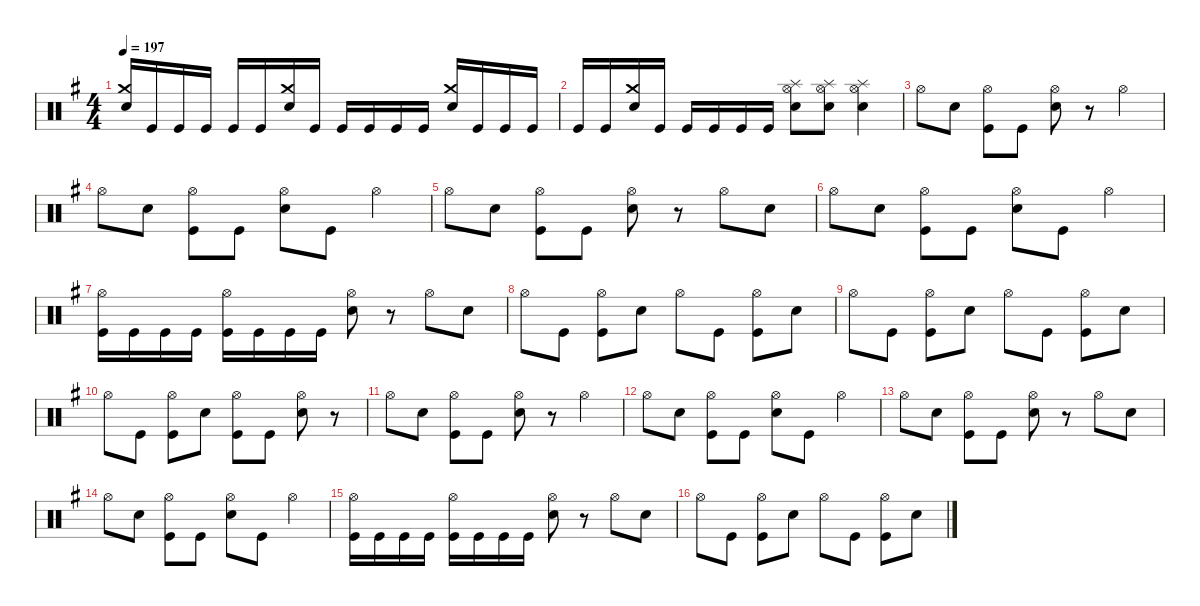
\defaultSystemsLayout 4
\hideDynamics
\bracketExtendMode nobrackets
\singleTrackTrackNamePolicy hidden
\multiTrackTrackNamePolicy hidden
\firstSystemTrackNameMode fullname
\firstSystemTrackNameOrientation horizontal
\otherSystemsTrackNameOrientation horizontal
\track ("Drums" "drm.") {defaultSystemsLayout 4 instrument percussion}
\staff {score}
\articulation defaults
\ts (4 4)
\tempo 197
\clef neutral
\ks eminor
("Crash medium (hit)"{acc forcenatural} "Snare (hit) 2"{acc forcenatural}).16{dy f beam Up} "Kick (hit)"{acc forcenatural}.16{beam Up} "Kick (hit)"{acc forcenatural}.16{beam Up} "Kick (hit)"{acc forcenatural}.16{beam Up} "Kick (hit)"{acc forcenatural}.16{beam Up} "Kick (hit)"{acc forcenatural}.16{beam Up} ("Crash medium (hit)"{acc forcenatural} "Snare (hit) 2"{acc forcenatural}).16{beam Up} "Kick (hit)"{acc forcenatural}.16{beam Up} "Kick (hit)"{acc forcenatural}.16{beam Up} "Kick (hit)"{acc forcenatural}.16{beam Up} "Kick (hit)"{acc forcenatural}.16{beam Up} "Kick (hit)"{acc forcenatural}.16{beam Up} ("Crash medium (hit)"{acc forcenatural} "Snare (hit) 2"{acc forcenatural}).16{beam Up} "Kick (hit)"{acc forcenatural}.16{beam Up} "Kick (hit)"{acc forcenatural}.16{beam Up} "Kick (hit)"{acc forcenatural}.16{beam Up} |
"Kick (hit)"{acc forcenatural}.16{beam Up} "Kick (hit)"{acc forcenatural}.16{beam Up} ("Crash medium (hit)"{acc forcenatural} "Snare (hit) 2"{acc forcenatural}).16{beam Up} "Kick (hit)"{acc forcenatural}.16{beam Up} "Kick (hit)"{acc forcenatural}.16{beam Up} "Kick (hit)"{acc forcenatural}.16{beam Up} "Kick (hit)"{acc forcenatural}.16{beam Up} "Kick (hit)"{acc forcenatural}.16{beam Up} ("Splash (hit)"{acc forcenatural} "Hi-Hat (open)"{acc forcenatural} "Snare (hit) 2"{acc forcenatural}).8{beam Down} ("Splash (hit)"{acc forcenatural} "Hi-Hat (open)"{acc forcenatural} "Snare (hit) 2"{acc forcenatural}).8{beam Down} ("Splash (hit)"{acc forcenatural} "Hi-Hat (open)"{acc forcenatural} "Snare (hit) 2"{acc forcenatural}).4{beam Down} |
"Hi-Hat (open)"{acc forcenatural}.8{dy mf beam Down} "Snare (hit) 2"{acc forcenatural}.8{dy f beam Down} ("Hi-Hat (open)"{acc forcenatural} "Kick (hit)"{acc forcenatural}).8{dy mf beam Down} "Kick (hit)"{acc forcenatural}.8{dy f beam Down} ("Hi-Hat (open)"{acc forcenatural} "Snare (hit) 2"{acc forcenatural}).8{dy mf beam Down} r.8{beam Down} "Hi-Hat (open)"{acc forcenatural}.4{beam Down} |
"Hi-Hat (open)"{acc forcenatural}.8{beam Down} "Snare (hit) 2"{acc forcenatural}.8{dy f beam Down} ("Hi-Hat (open)"{acc forcenatural} "Kick (hit)"{acc forcenatural}).8{dy mf beam Down} "Kick (hit)"{acc forcenatural}.8{dy f beam Down} ("Hi-Hat (open)"{acc forcenatural} "Snare (hit) 2"{acc forcenatural}).8{dy mf beam Down} "Kick (hit)"{acc forcenatural}.8{dy f beam Down} "Hi-Hat (open)"{acc forcenatural}.4{dy mf beam Down} |
"Hi-Hat (open)"{acc forcenatural}.8{beam Down} "Snare (hit) 2"{acc forcenatural}.8{dy f beam Down} ("Hi-Hat (open)"{acc forcenatural} "Kick (hit)"{acc forcenatural}).8{dy mf beam Down} "Kick (hit)"{acc forcenatural}.8{dy f beam Down} ("Hi-Hat (open)"{acc forcenatural} "Snare (hit) 2"{acc forcenatural}).8{dy mf beam Down} r.8{beam Down} "Hi-Hat (open)"{acc forcenatural}.8{beam Down} "Snare (hit) 2"{acc forcenatural}.8{dy f beam Down} |
"Hi-Hat (open)"{acc forcenatural}.8{dy mf beam Down} "Snare (hit) 2"{acc forcenatural}.8{dy f beam Down} ("Hi-Hat (open)"{acc forcenatural} "Kick (hit)"{acc forcenatural}).8{dy mf beam Down} "Kick (hit)"{acc forcenatural}.8{dy f beam Down} ("Hi-Hat (open)"{acc forcenatural} "Snare (hit) 2"{acc forcenatural}).8{dy mf beam Down} "Kick (hit)"{acc forcenatural}.8{dy f beam Down} "Hi-Hat (open)"{acc forcenatural}.4{dy mf beam Down} |
("Hi-Hat (open)"{acc forcenatural} "Kick (hit)"{acc forcenatural}).16{beam Down} "Kick (hit)"{acc forcenatural}.16{dy f beam Down} "Kick (hit)"{acc forcenatural}.16{beam Down} "Kick (hit)"{acc forcenatural}.16{beam Down} ("Hi-Hat (open)"{acc forcenatural} "Kick (hit)"{acc forcenatural}).16{dy mf beam Down} "Kick (hit)"{acc forcenatural}.16{dy f beam Down} "Kick (hit)"{acc forcenatural}.16{beam Down} "Kick (hit)"{acc forcenatural}.16{beam Down} ("Hi-Hat (open)"{acc forcenatural} "Snare (hit) 2"{acc forcenatural}).8{dy mf beam Down} r.8{beam Down} "Hi-Hat (open)"{acc forcenatural}.8{beam Down} "Snare (hit) 2"{acc forcenatural}.8{dy f beam Down} |
"Hi-Hat (open)"{acc forcenatural}.8{dy mf beam Down} "Kick (hit)"{acc forcenatural}.8{dy f beam Down} ("Hi-Hat (open)"{acc forcenatural} "Kick (hit)"{acc forcenatural}).8{dy mf beam Down} "Snare (hit) 2"{acc forcenatural}.8{dy f beam Down} "Hi-Hat (open)"{acc forcenatural}.8{dy mf beam Down} "Kick (hit)"{acc forcenatural}.8{dy f beam Down} ("Hi-Hat (open)"{acc forcenatural} "Kick (hit)"{acc forcenatural}).8{dy mf beam Down} "Snare (hit) 2"{acc forcenatural}.8{dy f beam Down} |
"Hi-Hat (open)"{acc forcenatural}.8{dy mf beam Down} "Kick (hit)"{acc forcenatural}.8{dy f beam Down} ("Hi-Hat (open)"{acc forcenatural} "Kick (hit)"{acc forcenatural}).8{dy mf beam Down} "Snare (hit) 2"{acc forcenatural}.8{dy f beam Down} "Hi-Hat (open)"{acc forcenatural}.8{dy mf beam Down} "Kick (hit)"{acc forcenatural}.8{dy f beam Down} ("Hi-Hat (open)"{acc forcenatural} "Kick (hit)"{acc forcenatural}).8{dy mf beam Down} "Snare (hit) 2"{acc forcenatural}.8{dy f beam Down} |
"Hi-Hat (open)"{acc forcenatural}.8{dy mf beam Down} "Kick (hit)"{acc forcenatural}.8{dy f beam Down} ("Hi-Hat (open)"{acc forcenatural} "Kick (hit)"{acc forcenatural}).8{dy mf beam Down} "Snare (hit) 2"{acc forcenatural}.8{dy f beam Down} ("Hi-Hat (open)"{acc forcenatural} "Kick (hit)"{acc forcenatural}).8{dy mf beam Down} "Kick (hit)"{acc forcenatural}.8{dy f beam Down} ("Hi-Hat (open)"{acc forcenatural} "Snare (hit) 2"{acc forcenatural}).8{dy mf beam Down} r.8{beam Down} |
"Hi-Hat (open)"{acc forcenatural}.8{beam Down} "Snare (hit) 2"{acc forcenatural}.8{dy f beam Down} ("Hi-Hat (open)"{acc forcenatural} "Kick (hit)"{acc forcenatural}).8{dy mf beam Down} "Kick (hit)"{acc forcenatural}.8{dy f beam Down} ("Hi-Hat (open)"{acc forcenatural} "Snare (hit) 2"{acc forcenatural}).8{dy mf beam Down} r.8{beam Down} "Hi-Hat (open)"{acc forcenatural}.4{beam Down} |
"Hi-Hat (open)"{acc forcenatural}.8{beam Down} "Snare (hit) 2"{acc forcenatural}.8{dy f beam Down} ("Hi-Hat (open)"{acc forcenatural} "Kick (hit)"{acc forcenatural}).8{dy mf beam Down} "Kick (hit)"{acc forcenatural}.8{dy f beam Down} ("Hi-Hat (open)"{acc forcenatural} "Snare (hit) 2"{acc forcenatural}).8{dy mf beam Down} "Kick (hit)"{acc forcenatural}.8{dy f beam Down} "Hi-Hat (open)"{acc forcenatural}.4{dy mf beam Down} |
"Hi-Hat (open)"{acc forcenatural}.8{beam Down} "Snare (hit) 2"{acc forcenatural}.8{dy f beam Down} ("Hi-Hat (open)"{acc forcenatural} "Kick (hit)"{acc forcenatural}).8{dy mf beam Down} "Kick (hit)"{acc forcenatural}.8{dy f beam Down} ("Hi-Hat (open)"{acc forcenatural} "Snare (hit) 2"{acc forcenatural}).8{dy mf beam Down} r.8{beam Down} "Hi-Hat (open)"{acc forcenatural}.8{beam Down} "Snare (hit) 2"{acc forcenatural}.8{dy f beam Down} |
"Hi-Hat (open)"{acc forcenatural}.8{dy mf beam Down} "Snare (hit) 2"{acc forcenatural}.8{dy f beam Down} ("Hi-Hat (open)"{acc forcenatural} "Kick (hit)"{acc forcenatural}).8{dy mf beam Down} "Kick (hit)"{acc forcenatural}.8{dy f beam Down} ("Hi-Hat (open)"{acc forcenatural} "Snare (hit) 2"{acc forcenatural}).8{dy mf beam Down} "Kick (hit)"{acc forcenatural}.8{dy f beam Down} "Hi-Hat (open)"{acc forcenatural}.4{dy mf beam Down} |
("Hi-Hat (open)"{acc forcenatural} "Kick (hit)"{acc forcenatural}).16{beam Down} "Kick (hit)"{acc forcenatural}.16{dy f beam Down} "Kick (hit)"{acc forcenatural}.16{beam Down} "Kick (hit)"{acc forcenatural}.16{beam Down} ("Hi-Hat (open)"{acc forcenatural} "Kick (hit)"{acc forcenatural}).16{dy mf beam Down} "Kick (hit)"{acc forcenatural}.16{dy f beam Down} "Kick (hit)"{acc forcenatural}.16{beam Down} "Kick (hit)"{acc forcenatural}.16{beam Down} ("Hi-Hat (open)"{acc forcenatural} "Snare (hit) 2"{acc forcenatural}).8{dy mf beam Down} r.8{beam Down} "Hi-Hat (open)"{acc forcenatural}.8{beam Down} "Snare (hit) 2"{acc forcenatural}.8{dy f beam Down} |
"Hi-Hat (open)"{acc forcenatural}.8{dy mf beam Down} "Kick (hit)"{acc forcenatural}.8{dy f beam Down} ("Hi-Hat (open)"{acc forcenatural} "Kick (hit)"{acc forcenatural}).8{dy mf beam Down} "Snare (hit) 2"{acc forcenatural}.8{dy f beam Down} "Hi-Hat (open)"{acc forcenatural}.8{dy mf beam Down} "Kick (hit)"{acc forcenatural}.8{dy f beam Down} ("Hi-Hat (open)"{acc forcenatural} "Kick (hit)"{acc forcenatural}).8{dy mf beam Down} "Snare (hit) 2"{acc forcenatural}.8{dy f beam Down}
